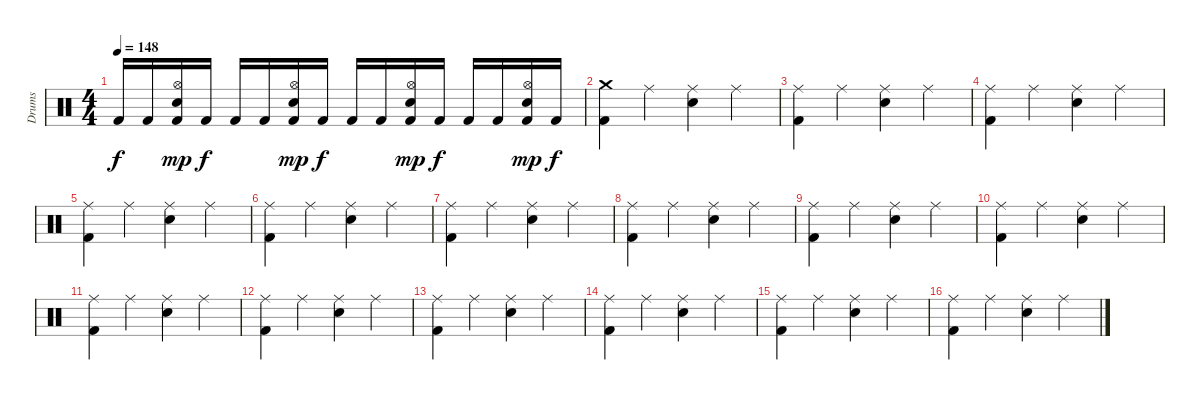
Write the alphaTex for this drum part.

\track ("Drums" "Drums") {instrument percussion}
\staff
\articulation defaults
\ts (4 4)
\tempo 148
\clef neutral
\ks c "Kick (hit) 2".16{dy f} "Kick (hit) 2".16
("Hi-Hat (open)" "Kick (hit) 2" "Electric Snare (hit)").16{dy mp} "Kick (hit) 2".16{dy f} "Kick (hit) 2".16 "Kick (hit) 2".16 ("Hi-Hat (open)" "Kick (hit) 2" "Electric Snare (hit)").16{dy mp} "Kick (hit) 2".16{dy f} "Kick (hit) 2".16 "Kick (hit) 2".16 ("Hi-Hat (open)" "Kick (hit) 2" "Electric Snare (hit)").16{dy mp} "Kick (hit) 2".16{dy f} "Kick (hit) 2".16 "Kick (hit) 2".16 ("Hi-Hat (open)" "Kick (hit) 2" "Electric Snare (hit)").16{dy mp} "Kick (hit) 2".16{dy f} |
("Crash medium (hit)" "Kick (hit) 2").4 "Ride (middle)".4 ("Ride (middle)" "Electric Snare (hit)").4 "Ride (middle)".4 |
("Ride (middle)" "Kick (hit) 2").4 "Ride (middle)".4 ("Ride (middle)" "Electric Snare (hit)").4 "Ride (middle)".4 |
("Ride (middle)" "Kick (hit) 2").4 "Ride (middle)".4 ("Ride (middle)" "Electric Snare (hit)").4 "Ride (middle)".4 |
("Ride (middle)" "Kick (hit) 2").4 "Ride (middle)".4 ("Ride (middle)" "Electric Snare (hit)").4 "Ride (middle)".4 |
("Ride (middle)" "Kick (hit) 2").4 "Ride (middle)".4 ("Ride (middle)" "Electric Snare (hit)").4 "Ride (middle)".4 |
("Ride (middle)" "Kick (hit) 2").4 "Ride (middle)".4 ("Ride (middle)" "Electric Snare (hit)").4 "Ride (middle)".4 |
("Ride (middle)" "Kick (hit) 2").4 "Ride (middle)".4 ("Ride (middle)" "Electric Snare (hit)").4 "Ride (middle)".4 |
("Ride (middle)" "Kick (hit) 2").4 "Ride (middle)".4 ("Ride (middle)" "Electric Snare (hit)").4 "Ride (middle)".4 |
("Ride (middle)" "Kick (hit) 2").4 "Ride (middle)".4 ("Ride (middle)" "Electric Snare (hit)").4 "Ride (middle)".4 |
("Ride (middle)" "Kick (hit) 2").4 "Ride (middle)".4 ("Ride (middle)" "Electric Snare (hit)").4 "Ride (middle)".4 |
("Ride (middle)" "Kick (hit) 2").4 "Ride (middle)".4 ("Ride (middle)" "Electric Snare (hit)").4 "Ride (middle)".4 |
("Ride (middle)" "Kick (hit) 2").4 "Ride (middle)".4 ("Ride (middle)" "Electric Snare (hit)").4 "Ride (middle)".4 |
("Ride (middle)" "Kick (hit) 2").4 "Ride (middle)".4 ("Ride (middle)" "Electric Snare (hit)").4 "Ride (middle)".4 |
("Ride (middle)" "Kick (hit) 2").4 "Ride (middle)".4 ("Ride (middle)" "Electric Snare (hit)").4 "Ride (middle)".4 |
("Ride (middle)" "Kick (hit) 2").4 "Ride (middle)".4 ("Ride (middle)" "Electric Snare (hit)").4 "Ride (middle)".4
